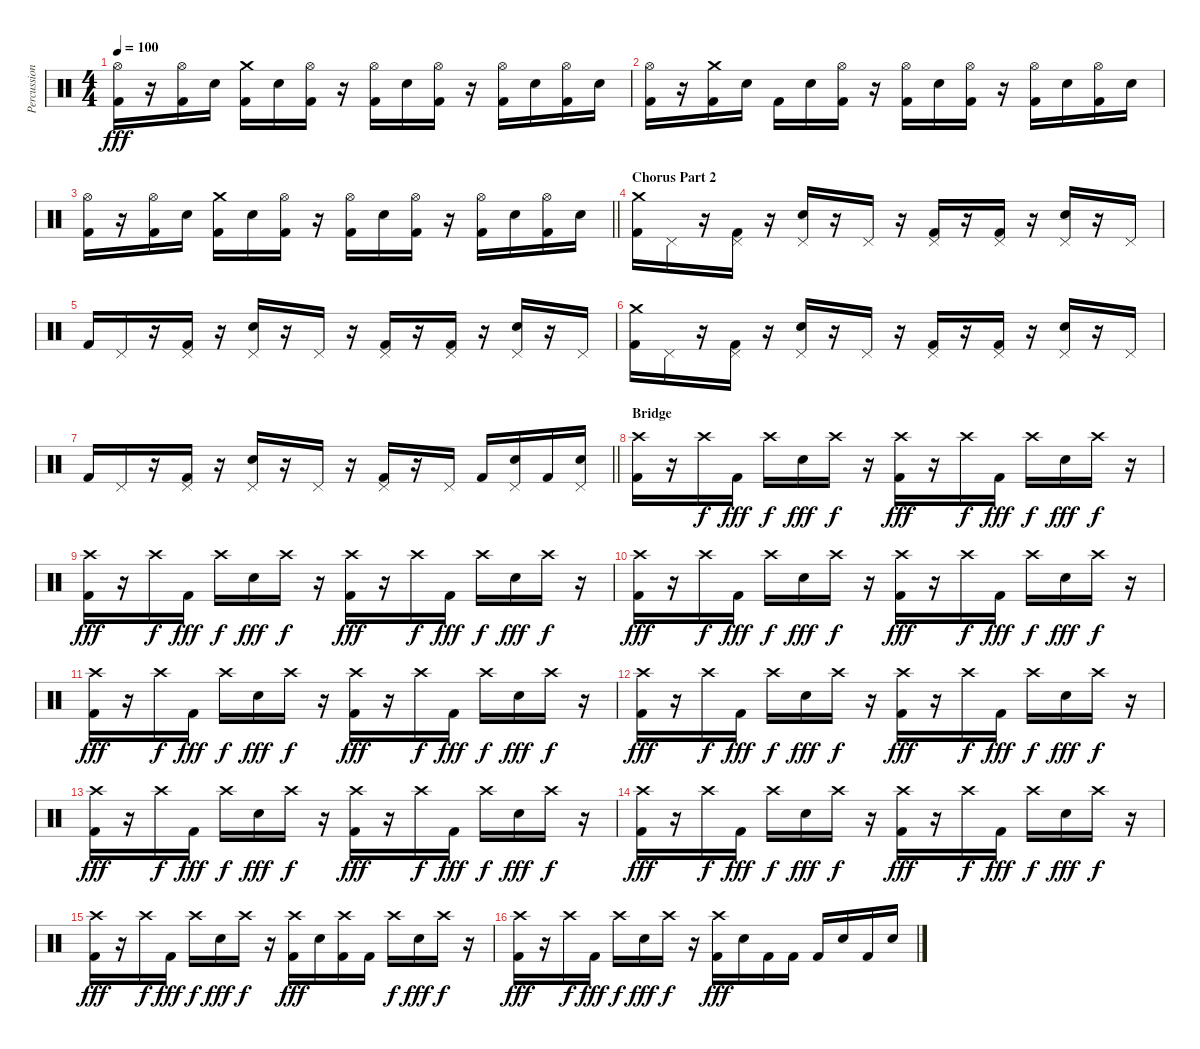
\track ("Percussion" "Percussion") {instrument percussion}
\staff {score}
\articulation defaults
\ts (4 4)
\tempo 100
\clef neutral
\ks c
("Hi-Hat (open)" "Kick (hit) 2").16{dy fff} r.16 ("Hi-Hat (open)" "Kick (hit) 2").16 "Electric Snare (hit)".16 ("Crash medium (hit)" "Kick (hit) 2").16 "Electric Snare (hit)".16 ("Hi-Hat (open)" "Kick (hit) 2").16 r.16 ("Hi-Hat (open)" "Kick (hit) 2").16 "Electric Snare (hit)".16 ("Hi-Hat (open)" "Kick (hit) 2").16 r.16 ("Hi-Hat (open)" "Kick (hit) 2").16 "Electric Snare (hit)".16 ("Hi-Hat (open)" "Kick (hit) 2").16 "Electric Snare (hit)".16 |
("Hi-Hat (open)" "Kick (hit) 2").16 r.16 ("Crash medium (hit)" "Kick (hit) 2").16 "Electric Snare (hit)".16 "Kick (hit) 2".16 "Electric Snare (hit)".16 ("Hi-Hat (open)" "Kick (hit) 2").16 r.16 ("Hi-Hat (open)" "Kick (hit) 2").16 "Electric Snare (hit)".16 ("Hi-Hat (open)" "Kick (hit) 2").16 r.16 ("Hi-Hat (open)" "Kick (hit) 2").16 "Electric Snare (hit)".16 ("Hi-Hat (open)" "Kick (hit) 2").16 "Electric Snare (hit)".16 |
\barLineRight lightlight
("Hi-Hat (open)" "Kick (hit) 2").16 r.16 ("Hi-Hat (open)" "Kick (hit) 2").16 "Electric Snare (hit)".16 ("Crash medium (hit)" "Kick (hit) 2").16 "Electric Snare (hit)".16 ("Hi-Hat (open)" "Kick (hit) 2").16 r.16 ("Hi-Hat (open)" "Kick (hit) 2").16 "Electric Snare (hit)".16 ("Hi-Hat (open)" "Kick (hit) 2").16 r.16 ("Hi-Hat (open)" "Kick (hit) 2").16 "Electric Snare (hit)".16 ("Hi-Hat (open)" "Kick (hit) 2").16 "Electric Snare (hit)".16 |
\section ("" "Chorus Part 2")
("Crash medium (hit)" "Kick (hit) 2").16 "Pedal Hi-Hat (hit)".16 r.16 ("Pedal Hi-Hat (hit)" "Kick (hit) 2").16 r.16 ("Pedal Hi-Hat (hit)" "Electric Snare (hit)").16 r.16 "Pedal Hi-Hat (hit)".16 r.16 ("Pedal Hi-Hat (hit)" "Kick (hit) 2").16 r.16 ("Pedal Hi-Hat (hit)" "Kick (hit) 2").16 r.16 ("Pedal Hi-Hat (hit)" "Electric Snare (hit)").16 r.16 "Pedal Hi-Hat (hit)".16 |
"Kick (hit) 2".16 "Pedal Hi-Hat (hit)".16 r.16 ("Pedal Hi-Hat (hit)" "Kick (hit) 2").16 r.16 ("Pedal Hi-Hat (hit)" "Electric Snare (hit)").16 r.16 "Pedal Hi-Hat (hit)".16 r.16 ("Pedal Hi-Hat (hit)" "Kick (hit) 2").16 r.16 ("Pedal Hi-Hat (hit)" "Kick (hit) 2").16 r.16 ("Pedal Hi-Hat (hit)" "Electric Snare (hit)").16 r.16 "Pedal Hi-Hat (hit)".16 |
("Crash medium (hit)" "Kick (hit) 2").16 "Pedal Hi-Hat (hit)".16 r.16 ("Pedal Hi-Hat (hit)" "Kick (hit) 2").16 r.16 ("Pedal Hi-Hat (hit)" "Electric Snare (hit)").16 r.16 "Pedal Hi-Hat (hit)".16 r.16 ("Pedal Hi-Hat (hit)" "Kick (hit) 2").16 r.16 ("Pedal Hi-Hat (hit)" "Kick (hit) 2").16 r.16 ("Pedal Hi-Hat (hit)" "Electric Snare (hit)").16 r.16 "Pedal Hi-Hat (hit)".16 |
\barLineRight lightlight "Kick (hit) 2".16 "Pedal Hi-Hat (hit)".16
r.16 ("Pedal Hi-Hat (hit)" "Kick (hit) 2").16 r.16 ("Pedal Hi-Hat (hit)" "Electric Snare (hit)").16 r.16 "Pedal Hi-Hat (hit)".16 r.16 ("Pedal Hi-Hat (hit)" "Kick (hit) 2").16 r.16 "Pedal Hi-Hat (hit)".16 "Kick (hit) 2".16 ("Pedal Hi-Hat (hit)" "Electric Snare (hit)").16 "Kick (hit) 2".16 ("Pedal Hi-Hat (hit)" "Electric Snare (hit)").16 |
\section ("" "Bridge")
("Crash high (hit)" "Kick (hit) 2").16 r.16 "Crash high (hit)".16{dy f} "Kick (hit) 2".16{dy fff} "Crash high (hit)".16{dy f} "Electric Snare (hit)".16{dy fff} "Crash high (hit)".16{dy f} r.16 ("Crash high (hit)" "Kick (hit) 2").16{dy fff} r.16 "Crash high (hit)".16{dy f} "Kick (hit) 2".16{dy fff} "Crash high (hit)".16{dy f} "Electric Snare (hit)".16{dy fff} "Crash high (hit)".16{dy f} r.16 |
("Crash high (hit)" "Kick (hit) 2").16{dy fff} r.16 "Crash high (hit)".16{dy f} "Kick (hit) 2".16{dy fff} "Crash high (hit)".16{dy f} "Electric Snare (hit)".16{dy fff} "Crash high (hit)".16{dy f} r.16 ("Crash high (hit)" "Kick (hit) 2").16{dy fff} r.16 "Crash high (hit)".16{dy f} "Kick (hit) 2".16{dy fff} "Crash high (hit)".16{dy f} "Electric Snare (hit)".16{dy fff} "Crash high (hit)".16{dy f} r.16 |
("Crash high (hit)" "Kick (hit) 2").16{dy fff} r.16 "Crash high (hit)".16{dy f} "Kick (hit) 2".16{dy fff} "Crash high (hit)".16{dy f} "Electric Snare (hit)".16{dy fff} "Crash high (hit)".16{dy f} r.16 ("Crash high (hit)" "Kick (hit) 2").16{dy fff} r.16 "Crash high (hit)".16{dy f} "Kick (hit) 2".16{dy fff} "Crash high (hit)".16{dy f} "Electric Snare (hit)".16{dy fff} "Crash high (hit)".16{dy f} r.16 |
("Crash high (hit)" "Kick (hit) 2").16{dy fff} r.16 "Crash high (hit)".16{dy f} "Kick (hit) 2".16{dy fff} "Crash high (hit)".16{dy f} "Electric Snare (hit)".16{dy fff} "Crash high (hit)".16{dy f} r.16 ("Crash high (hit)" "Kick (hit) 2").16{dy fff} r.16 "Crash high (hit)".16{dy f} "Kick (hit) 2".16{dy fff} "Crash high (hit)".16{dy f} "Electric Snare (hit)".16{dy fff} "Crash high (hit)".16{dy f} r.16 |
("Crash high (hit)" "Kick (hit) 2").16{dy fff} r.16 "Crash high (hit)".16{dy f} "Kick (hit) 2".16{dy fff} "Crash high (hit)".16{dy f} "Electric Snare (hit)".16{dy fff} "Crash high (hit)".16{dy f} r.16 ("Crash high (hit)" "Kick (hit) 2").16{dy fff} r.16 "Crash high (hit)".16{dy f} "Kick (hit) 2".16{dy fff} "Crash high (hit)".16{dy f} "Electric Snare (hit)".16{dy fff} "Crash high (hit)".16{dy f} r.16 |
("Crash high (hit)" "Kick (hit) 2").16{dy fff} r.16 "Crash high (hit)".16{dy f} "Kick (hit) 2".16{dy fff} "Crash high (hit)".16{dy f} "Electric Snare (hit)".16{dy fff} "Crash high (hit)".16{dy f} r.16 ("Crash high (hit)" "Kick (hit) 2").16{dy fff} r.16 "Crash high (hit)".16{dy f} "Kick (hit) 2".16{dy fff} "Crash high (hit)".16{dy f} "Electric Snare (hit)".16{dy fff} "Crash high (hit)".16{dy f} r.16 |
("Crash high (hit)" "Kick (hit) 2").16{dy fff} r.16 "Crash high (hit)".16{dy f} "Kick (hit) 2".16{dy fff} "Crash high (hit)".16{dy f} "Electric Snare (hit)".16{dy fff} "Crash high (hit)".16{dy f} r.16 ("Crash high (hit)" "Kick (hit) 2").16{dy fff} r.16 "Crash high (hit)".16{dy f} "Kick (hit) 2".16{dy fff} "Crash high (hit)".16{dy f} "Electric Snare (hit)".16{dy fff} "Crash high (hit)".16{dy f} r.16 |
("Crash high (hit)" "Kick (hit) 2").16{dy fff} r.16 "Crash high (hit)".16{dy f} "Kick (hit) 2".16{dy fff} "Crash high (hit)".16{dy f} "Electric Snare (hit)".16{dy fff} "Crash high (hit)".16{dy f} r.16 ("Crash high (hit)" "Kick (hit) 2").16{dy fff} "Electric Snare (hit)".16 ("Crash high (hit)" "Kick (hit) 2").16 "Kick (hit) 2".16 "Crash high (hit)".16{dy f} "Electric Snare (hit)".16{dy fff} "Crash high (hit)".16{dy f} r.16 |
("Crash high (hit)" "Kick (hit) 2").16{dy fff} r.16 "Crash high (hit)".16{dy f} "Kick (hit) 2".16{dy fff} "Crash high (hit)".16{dy f} "Electric Snare (hit)".16{dy fff} "Crash high (hit)".16{dy f} r.16 ("Crash high (hit)" "Kick (hit) 2").16{dy fff} "Electric Snare (hit)".16 "Kick (hit) 2".16 "Kick (hit) 2".16 "Kick (hit) 2".16 "Electric Snare (hit)".16 "Kick (hit) 2".16 "Electric Snare (hit)".16
